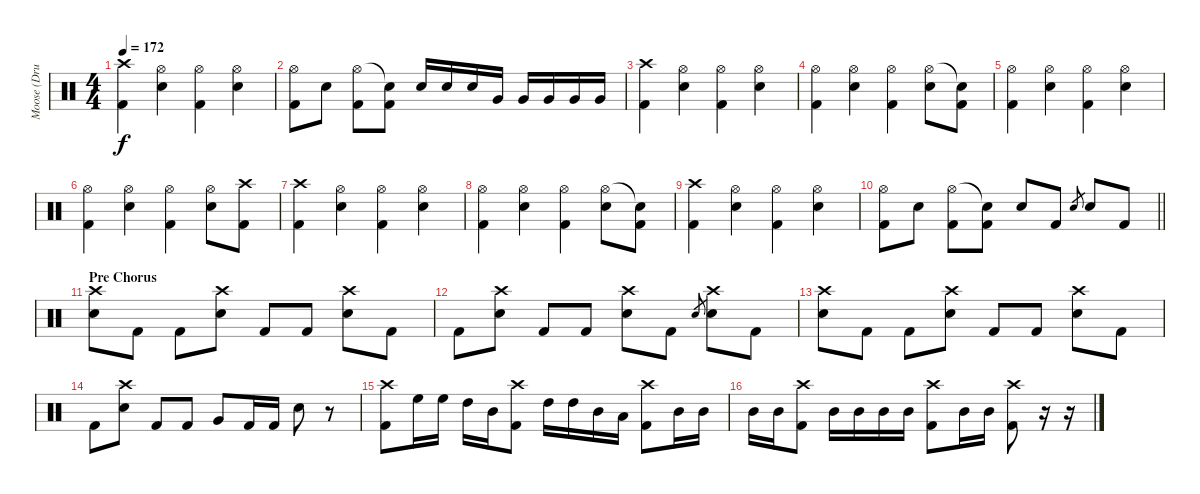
\track ("Moose (Drums)" "Moose (Dru") {instrument percussion}
\staff {score}
\articulation defaults
\ts (4 4)
\tempo 172
\clef neutral
\ks c
("Crash high (hit)" "Kick (hit) 2").4{dy f} ("Hi-Hat (open)" "Electric Snare (hit)").4 ("Hi-Hat (open)" "Kick (hit) 2").4 ("Hi-Hat (open)" "Electric Snare (hit)").4 |
("Hi-Hat (open)" "Kick (hit) 2").8 "Electric Snare (hit)".8 ("Hi-Hat (open)" "Kick (hit) 2").8 ("Snare (hit)"{t} "Kick (hit) 2").8 "Electric Snare (hit)".16 "Electric Snare (hit)".16 "Electric Snare (hit)".16 "Very Low Tom (hit)".16 "Very Low Tom (hit)".16 "Very Low Tom (hit)".16 "Very Low Tom (hit)".16 "Very Low Tom (hit)".16 |
("Crash high (hit)" "Kick (hit) 2").4 ("Hi-Hat (open)" "Electric Snare (hit)").4 ("Hi-Hat (open)" "Kick (hit) 2").4 ("Hi-Hat (open)" "Electric Snare (hit)").4 |
("Hi-Hat (open)" "Kick (hit) 2").4 ("Hi-Hat (open)" "Electric Snare (hit)").4 ("Hi-Hat (open)" "Kick (hit) 2").4 ("Hi-Hat (open)" "Electric Snare (hit)").8 ("Snare (hit)"{t} "Kick (hit) 2").8 |
("Hi-Hat (open)" "Kick (hit) 2").4 ("Hi-Hat (open)" "Electric Snare (hit)").4 ("Hi-Hat (open)" "Kick (hit) 2").4 ("Hi-Hat (open)" "Electric Snare (hit)").4 |
("Hi-Hat (open)" "Kick (hit) 2").4 ("Hi-Hat (open)" "Electric Snare (hit)").4 ("Hi-Hat (open)" "Kick (hit) 2").4 ("Hi-Hat (open)" "Electric Snare (hit)").8 ("Crash high (hit)" "Kick (hit) 2").8 |
("Crash high (hit)" "Kick (hit) 2").4 ("Hi-Hat (open)" "Electric Snare (hit)").4 ("Hi-Hat (open)" "Kick (hit) 2").4 ("Hi-Hat (open)" "Electric Snare (hit)").4 |
("Hi-Hat (open)" "Kick (hit) 2").4 ("Hi-Hat (open)" "Electric Snare (hit)").4 ("Hi-Hat (open)" "Kick (hit) 2").4 ("Hi-Hat (open)" "Electric Snare (hit)").8 ("Snare (hit)"{t} "Kick (hit) 2").8 |
("Crash high (hit)" "Kick (hit) 2").4 ("Hi-Hat (open)" "Electric Snare (hit)").4 ("Hi-Hat (open)" "Kick (hit) 2").4 ("Hi-Hat (open)" "Electric Snare (hit)").4 |
\barLineRight lightlight
("Hi-Hat (open)" "Kick (hit) 2").8 "Electric Snare (hit)".8 ("Hi-Hat (open)" "Kick (hit) 2").8 ("Snare (hit)"{t} "Kick (hit) 2").8 "Electric Snare (hit)".8 "Kick (hit) 2".8 "Electric Snare (hit)".8{gr} "Electric Snare (hit)".8 "Kick (hit) 2".8 |
\section ("" "Pre Chorus")
("Crash high (hit)" "Electric Snare (hit)").8 "Kick (hit) 2".8 "Kick (hit) 2".8 ("Crash high (hit)" "Electric Snare (hit)").8 "Kick (hit) 2".8 "Kick (hit) 2".8 ("Crash high (hit)" "Electric Snare (hit)").8 "Kick (hit) 2".8 |
"Kick (hit) 2".8 ("Crash high (hit)" "Electric Snare (hit)").8 "Kick (hit) 2".8 "Kick (hit) 2".8 ("Crash high (hit)" "Electric Snare (hit)").8 "Kick (hit) 2".8 "Electric Snare (hit)".8{gr} ("Crash high (hit)" "Electric Snare (hit)").8 "Kick (hit) 2".8 |
("Crash high (hit)" "Electric Snare (hit)").8 "Kick (hit) 2".8 "Kick (hit) 2".8 ("Crash high (hit)" "Electric Snare (hit)").8 "Kick (hit) 2".8 "Kick (hit) 2".8 ("Crash high (hit)" "Electric Snare (hit)").8 "Kick (hit) 2".8 |
"Kick (hit) 2".8 ("Crash high (hit)" "Electric Snare (hit)").8 "Kick (hit) 2".8 "Kick (hit) 2".8 "Very Low Tom (hit)".8 "Kick (hit) 2".16 "Kick (hit) 2".16 "Electric Snare (hit)".8 r.8 |
("Crash high (hit)" "Kick (hit) 2").8 "High Floor Tom (hit)".16 "High Floor Tom (hit)".16 "High Tom (hit)".16 "Mid Tom (hit)".16 ("Crash high (hit)" "Kick (hit) 2").8 "High Tom (hit)".16 "High Tom (hit)".16 "Mid Tom (hit)".16 "Low Tom (hit)".16 ("Crash high (hit)" "Kick (hit) 2").8 "Mid Tom (hit)".16 "Mid Tom (hit)".16 |
"Mid Tom (hit)".16 "Mid Tom (hit)".16 ("Crash high (hit)" "Kick (hit) 2").8 "Mid Tom (hit)".16 "Mid Tom (hit)".16 "Mid Tom (hit)".16 "Mid Tom (hit)".16 ("Crash high (hit)" "Kick (hit) 2").8 "Mid Tom (hit)".16 "Mid Tom (hit)".16 ("Crash high (hit)" "Kick (hit) 2").8 r.16 r.16
